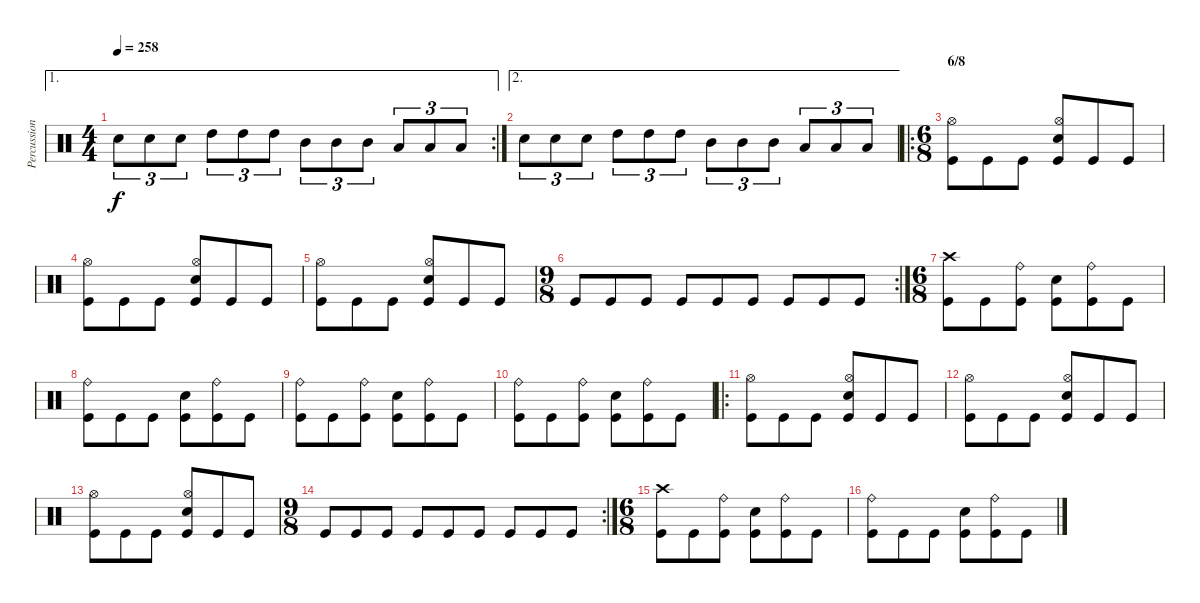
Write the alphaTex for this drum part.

\track ("Percussion" "Percussion") {instrument percussion}
\staff {score}
\articulation defaults
\ae 1
\rc 2
\ts (4 4)
\tempo 258
\clef neutral
\ks c "Snare (hit) 2".8{tu (3 2) dy f} "Snare (hit) 2".8{tu (3 2)} "Snare (hit) 2".8{tu (3 2)} "High Tom (hit)".8{tu (3 2)} "High Tom (hit)".8{tu (3 2)} "High Tom (hit)".8{tu (3 2)} "Mid Tom (hit)".8{tu (3 2)} "Mid Tom (hit)".8{tu (3 2)} "Mid Tom (hit)".8{tu (3 2)} "Low Tom (hit)".8{tu (3 2)} "Low Tom (hit)".8{tu (3 2)} "Low Tom (hit)".8{tu (3 2)}
|
\ae 2 "Snare (hit) 2".8{tu (3 2)} "Snare (hit) 2".8{tu (3 2)} "Snare (hit) 2".8{tu (3 2)} "High Tom (hit)".8{tu (3 2)} "High Tom (hit)".8{tu (3 2)} "High Tom (hit)".8{tu (3 2)} "Mid Tom (hit)".8{tu (3 2)} "Mid Tom (hit)".8{tu (3 2)} "Mid Tom (hit)".8{tu (3 2)} "Low Tom (hit)".8{tu (3 2)} "Low Tom (hit)".8{tu (3 2)} "Low Tom (hit)".8{tu (3 2)}
|
\ro
\ts (6 8)
\section ("" "6/8")
("Hi-Hat (open)" "Kick (hit)").8 "Kick (hit)".8 "Kick (hit)".8 ("Snare (hit) 2" "Hi-Hat (open)" "Kick (hit)").8 "Kick (hit)".8 "Kick (hit)".8 |
("Hi-Hat (open)" "Kick (hit)").8 "Kick (hit)".8 "Kick (hit)".8 ("Snare (hit) 2" "Hi-Hat (open)" "Kick (hit)").8 "Kick (hit)".8 "Kick (hit)".8 |
("Hi-Hat (open)" "Kick (hit)").8 "Kick (hit)".8 "Kick (hit)".8 ("Snare (hit) 2" "Hi-Hat (open)" "Kick (hit)").8 "Kick (hit)".8 "Kick (hit)".8 |
\rc 2
\ts (9 8)
"Kick (hit)".8 "Kick (hit)".8 "Kick (hit)".8 "Kick (hit)".8 "Kick (hit)".8 "Kick (hit)".8 "Kick (hit)".8 "Kick (hit)".8 "Kick (hit)".8 |
\ts (6 8)
("Crash high (hit)" "Kick (hit)").8 "Kick (hit)".8 ("Ride (bell)" "Kick (hit)").8 ("Snare (hit) 2" "Kick (hit)").8 ("Ride (bell)" "Kick (hit)").8 "Kick (hit)".8 |
("Ride (bell)" "Kick (hit)").8 "Kick (hit)".8 "Kick (hit)".8 ("Snare (hit) 2" "Kick (hit)").8 ("Ride (bell)" "Kick (hit)").8 "Kick (hit)".8 |
("Ride (bell)" "Kick (hit)").8 "Kick (hit)".8 ("Ride (bell)" "Kick (hit)").8 ("Snare (hit) 2" "Kick (hit)").8 ("Ride (bell)" "Kick (hit)").8 "Kick (hit)".8 |
("Ride (bell)" "Kick (hit)").8 "Kick (hit)".8 ("Ride (bell)" "Kick (hit)").8 ("Snare (hit) 2" "Kick (hit)").8 ("Ride (bell)" "Kick (hit)").8 "Kick (hit)".8 |
\ro
("Hi-Hat (open)" "Kick (hit)").8 "Kick (hit)".8 "Kick (hit)".8 ("Snare (hit) 2" "Hi-Hat (open)" "Kick (hit)").8 "Kick (hit)".8 "Kick (hit)".8 |
("Hi-Hat (open)" "Kick (hit)").8 "Kick (hit)".8 "Kick (hit)".8 ("Snare (hit) 2" "Hi-Hat (open)" "Kick (hit)").8 "Kick (hit)".8 "Kick (hit)".8 |
("Hi-Hat (open)" "Kick (hit)").8 "Kick (hit)".8 "Kick (hit)".8 ("Snare (hit) 2" "Hi-Hat (open)" "Kick (hit)").8 "Kick (hit)".8 "Kick (hit)".8 |
\rc 2
\ts (9 8)
"Kick (hit)".8 "Kick (hit)".8 "Kick (hit)".8 "Kick (hit)".8 "Kick (hit)".8 "Kick (hit)".8 "Kick (hit)".8 "Kick (hit)".8 "Kick (hit)".8 |
\ts (6 8)
("Crash high (hit)" "Kick (hit)").8 "Kick (hit)".8 ("Ride (bell)" "Kick (hit)").8 ("Snare (hit) 2" "Kick (hit)").8 ("Ride (bell)" "Kick (hit)").8 "Kick (hit)".8 |
("Ride (bell)" "Kick (hit)").8 "Kick (hit)".8 "Kick (hit)".8 ("Snare (hit) 2" "Kick (hit)").8 ("Ride (bell)" "Kick (hit)").8 "Kick (hit)".8
